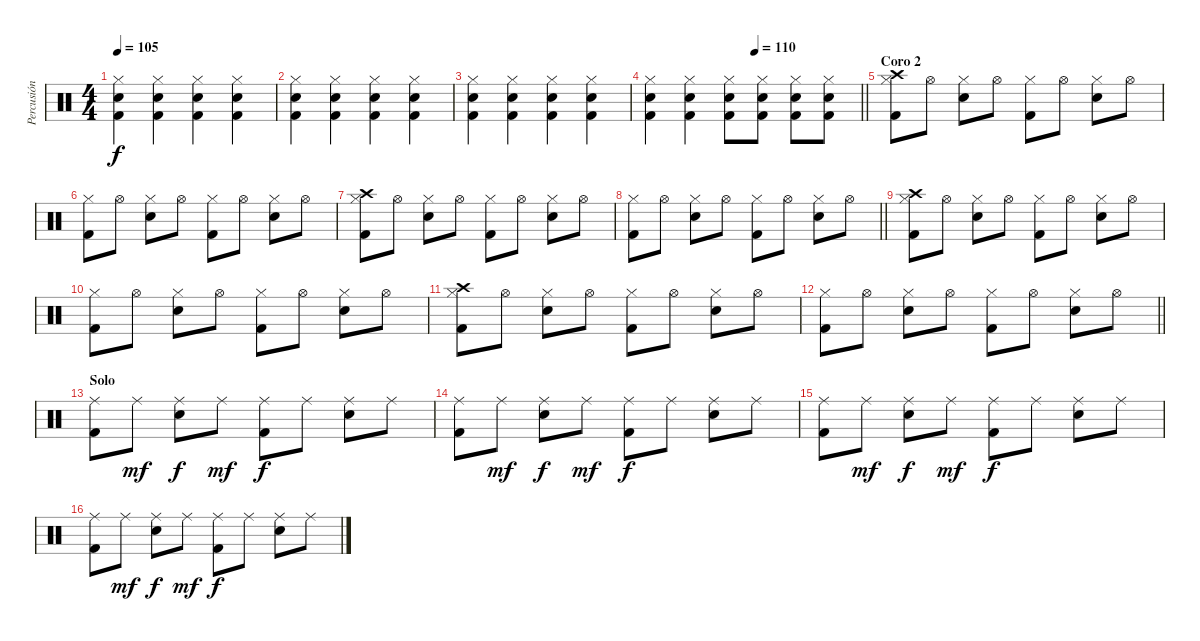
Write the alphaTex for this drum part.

\track ("Percusión" "Percusión") {instrument percussion}
\staff {score}
\articulation defaults
\ts (4 4)
\tempo 105
\clef neutral
\ks c
("Snare (hit) 2" "Kick (hit) 2" "Hi-Hat (closed)").4{dy f} ("Snare (hit) 2" "Kick (hit) 2" "Hi-Hat (closed)").4 ("Snare (hit) 2" "Kick (hit) 2" "Hi-Hat (closed)").4 ("Snare (hit) 2" "Kick (hit) 2" "Hi-Hat (closed)").4 |
("Snare (hit) 2" "Kick (hit) 2" "Hi-Hat (closed)").4 ("Snare (hit) 2" "Kick (hit) 2" "Hi-Hat (closed)").4 ("Snare (hit) 2" "Kick (hit) 2" "Hi-Hat (closed)").4 ("Snare (hit) 2" "Kick (hit) 2" "Hi-Hat (closed)").4 |
("Snare (hit) 2" "Kick (hit) 2" "Hi-Hat (closed)").4 ("Snare (hit) 2" "Kick (hit) 2" "Hi-Hat (closed)").4 ("Snare (hit) 2" "Kick (hit) 2" "Hi-Hat (closed)").4 ("Snare (hit) 2" "Kick (hit) 2" "Hi-Hat (closed)").4 |
\tempo (110 0.5)
\barLineRight lightlight
("Snare (hit) 2" "Kick (hit) 2" "Hi-Hat (closed)").4 ("Snare (hit) 2" "Kick (hit) 2" "Hi-Hat (closed)").4 ("Snare (hit) 2" "Kick (hit) 2" "Hi-Hat (closed)").8 ("Snare (hit) 2" "Kick (hit) 2" "Hi-Hat (closed)").8 ("Snare (hit) 2" "Kick (hit) 2" "Hi-Hat (closed)").8 ("Snare (hit) 2" "Kick (hit) 2" "Hi-Hat (closed)").8 |
\section ("" "Coro 2")
("Crash high (hit)" "Kick (hit) 2" "Hi-Hat (closed)").8 "Hi-Hat (open)".8 ("Snare (hit) 2" "Hi-Hat (closed)").8 "Hi-Hat (open)".8 ("Kick (hit) 2" "Hi-Hat (closed)").8 "Hi-Hat (open)".8 ("Snare (hit) 2" "Hi-Hat (closed)").8 "Hi-Hat (open)".8 |
("Kick (hit) 2" "Hi-Hat (closed)").8 "Hi-Hat (open)".8 ("Snare (hit) 2" "Hi-Hat (closed)").8 "Hi-Hat (open)".8 ("Kick (hit) 2" "Hi-Hat (closed)").8 "Hi-Hat (open)".8 ("Snare (hit) 2" "Hi-Hat (closed)").8 "Hi-Hat (open)".8 |
("Crash high (hit)" "Kick (hit) 2" "Hi-Hat (closed)").8 "Hi-Hat (open)".8 ("Snare (hit) 2" "Hi-Hat (closed)").8 "Hi-Hat (open)".8 ("Kick (hit) 2" "Hi-Hat (closed)").8 "Hi-Hat (open)".8 ("Snare (hit) 2" "Hi-Hat (closed)").8 "Hi-Hat (open)".8 |
\barLineRight lightlight
("Kick (hit) 2" "Hi-Hat (closed)").8 "Hi-Hat (open)".8 ("Snare (hit) 2" "Hi-Hat (closed)").8 "Hi-Hat (open)".8 ("Kick (hit) 2" "Hi-Hat (closed)").8 "Hi-Hat (open)".8 ("Snare (hit) 2" "Hi-Hat (closed)").8 "Hi-Hat (open)".8 |
("Crash high (hit)" "Kick (hit) 2" "Hi-Hat (closed)").8 "Hi-Hat (open)".8 ("Snare (hit) 2" "Hi-Hat (closed)").8 "Hi-Hat (open)".8 ("Kick (hit) 2" "Hi-Hat (closed)").8 "Hi-Hat (open)".8 ("Snare (hit) 2" "Hi-Hat (closed)").8 "Hi-Hat (open)".8 |
("Kick (hit) 2" "Hi-Hat (closed)").8 "Hi-Hat (open)".8 ("Snare (hit) 2" "Hi-Hat (closed)").8 "Hi-Hat (open)".8 ("Kick (hit) 2" "Hi-Hat (closed)").8 "Hi-Hat (open)".8 ("Snare (hit) 2" "Hi-Hat (closed)").8 "Hi-Hat (open)".8 |
("Crash high (hit)" "Kick (hit) 2" "Hi-Hat (closed)").8 "Hi-Hat (open)".8 ("Snare (hit) 2" "Hi-Hat (closed)").8 "Hi-Hat (open)".8 ("Kick (hit) 2" "Hi-Hat (closed)").8 "Hi-Hat (open)".8 ("Snare (hit) 2" "Hi-Hat (closed)").8 "Hi-Hat (open)".8 |
\barLineRight lightlight
("Kick (hit) 2" "Hi-Hat (closed)").8 "Hi-Hat (open)".8 ("Snare (hit) 2" "Hi-Hat (closed)").8 "Hi-Hat (open)".8 ("Kick (hit) 2" "Hi-Hat (closed)").8 "Hi-Hat (open)".8 ("Snare (hit) 2" "Hi-Hat (closed)").8 "Hi-Hat (open)".8 |
\section ("" "Solo")
("Kick (hit) 2" "Ride (middle)").8 "Ride (middle)".8{dy mf} ("Snare (hit) 2" "Ride (middle)").8{dy f} "Ride (middle)".8{dy mf} ("Kick (hit) 2" "Ride (middle)").8{dy f} "Ride (middle)".8 ("Snare (hit) 2" "Ride (middle)").8 "Ride (middle)".8 |
("Kick (hit) 2" "Ride (middle)").8 "Ride (middle)".8{dy mf} ("Snare (hit) 2" "Ride (middle)").8{dy f} "Ride (middle)".8{dy mf} ("Kick (hit) 2" "Ride (middle)").8{dy f} "Ride (middle)".8 ("Snare (hit) 2" "Ride (middle)").8 "Ride (middle)".8 |
("Kick (hit) 2" "Ride (middle)").8 "Ride (middle)".8{dy mf} ("Snare (hit) 2" "Ride (middle)").8{dy f} "Ride (middle)".8{dy mf} ("Kick (hit) 2" "Ride (middle)").8{dy f} "Ride (middle)".8 ("Snare (hit) 2" "Ride (middle)").8 "Ride (middle)".8 |
("Kick (hit) 2" "Ride (middle)").8 "Ride (middle)".8{dy mf} ("Snare (hit) 2" "Ride (middle)").8{dy f} "Ride (middle)".8{dy mf} ("Kick (hit) 2" "Ride (middle)").8{dy f} "Ride (middle)".8 ("Snare (hit) 2" "Ride (middle)").8 "Ride (middle)".8
